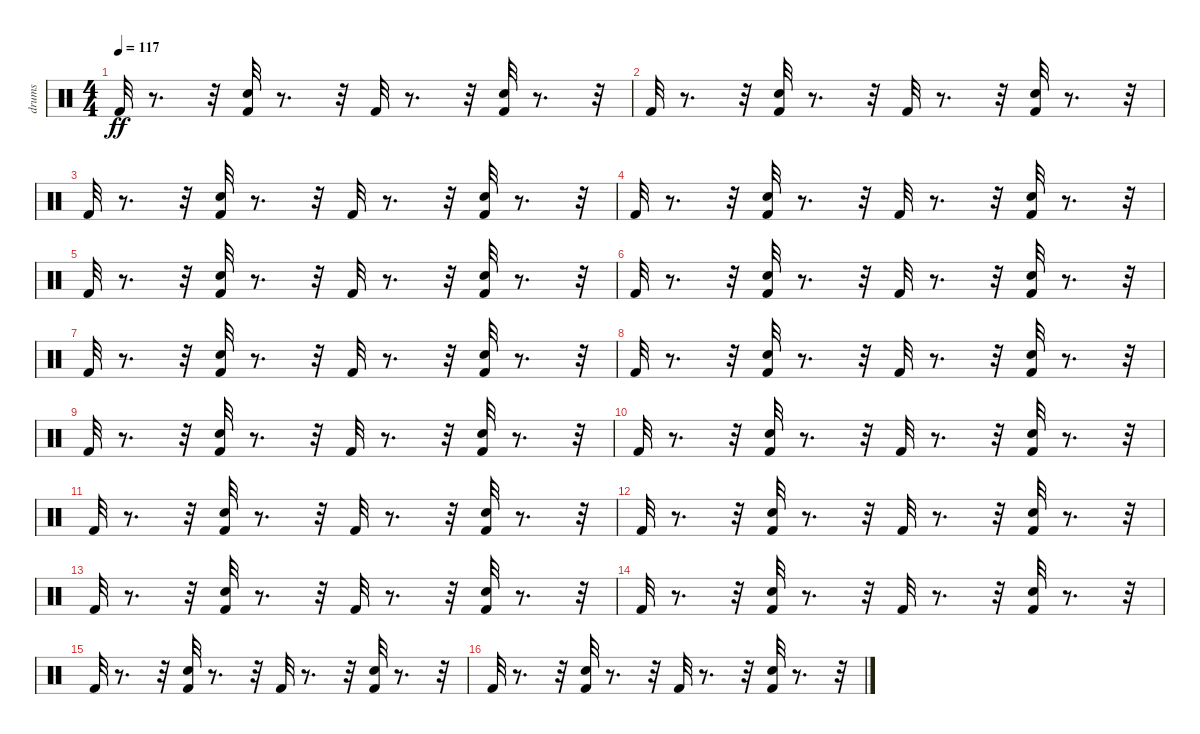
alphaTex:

\track ("drums   " "drums   ") {instrument percussion}
\staff {score}
\articulation defaults
\ts (4 4)
\tempo 117
\clef neutral
\ks c "Kick (hit) 2".32{dy ff}
r.8{d} r.32 ("Kick (hit) 2" "Snare (hit) 2").32 r.8{d} r.32 "Kick (hit) 2".32 r.8{d} r.32 ("Kick (hit) 2" "Snare (hit) 2").32 r.8{d} r.32 |
"Kick (hit) 2".32 r.8{d} r.32 ("Kick (hit) 2" "Snare (hit) 2").32 r.8{d} r.32 "Kick (hit) 2".32 r.8{d} r.32 ("Kick (hit) 2" "Snare (hit) 2").32 r.8{d} r.32 |
"Kick (hit) 2".32 r.8{d} r.32 ("Kick (hit) 2" "Snare (hit) 2").32 r.8{d} r.32 "Kick (hit) 2".32 r.8{d} r.32 ("Kick (hit) 2" "Snare (hit) 2").32 r.8{d} r.32 |
"Kick (hit) 2".32 r.8{d} r.32 ("Kick (hit) 2" "Snare (hit) 2").32 r.8{d} r.32 "Kick (hit) 2".32 r.8{d} r.32 ("Kick (hit) 2" "Snare (hit) 2").32 r.8{d} r.32 |
"Kick (hit) 2".32 r.8{d} r.32 ("Kick (hit) 2" "Snare (hit) 2").32 r.8{d} r.32 "Kick (hit) 2".32 r.8{d} r.32 ("Kick (hit) 2" "Snare (hit) 2").32 r.8{d} r.32 |
"Kick (hit) 2".32 r.8{d} r.32 ("Kick (hit) 2" "Snare (hit) 2").32 r.8{d} r.32 "Kick (hit) 2".32 r.8{d} r.32 ("Kick (hit) 2" "Snare (hit) 2").32 r.8{d} r.32 |
"Kick (hit) 2".32 r.8{d} r.32 ("Kick (hit) 2" "Snare (hit) 2").32 r.8{d} r.32 "Kick (hit) 2".32 r.8{d} r.32 ("Kick (hit) 2" "Snare (hit) 2").32 r.8{d} r.32 |
"Kick (hit) 2".32 r.8{d} r.32 ("Kick (hit) 2" "Snare (hit) 2").32 r.8{d} r.32 "Kick (hit) 2".32 r.8{d} r.32 ("Kick (hit) 2" "Snare (hit) 2").32 r.8{d} r.32 |
"Kick (hit) 2".32 r.8{d} r.32 ("Kick (hit) 2" "Snare (hit) 2").32 r.8{d} r.32 "Kick (hit) 2".32 r.8{d} r.32 ("Kick (hit) 2" "Snare (hit) 2").32 r.8{d} r.32 |
"Kick (hit) 2".32 r.8{d} r.32 ("Kick (hit) 2" "Snare (hit) 2").32 r.8{d} r.32 "Kick (hit) 2".32 r.8{d} r.32 ("Kick (hit) 2" "Snare (hit) 2").32 r.8{d} r.32 |
"Kick (hit) 2".32 r.8{d} r.32 ("Kick (hit) 2" "Snare (hit) 2").32 r.8{d} r.32 "Kick (hit) 2".32 r.8{d} r.32 ("Kick (hit) 2" "Snare (hit) 2").32 r.8{d} r.32 |
"Kick (hit) 2".32 r.8{d} r.32 ("Kick (hit) 2" "Snare (hit) 2").32 r.8{d} r.32 "Kick (hit) 2".32 r.8{d} r.32 ("Kick (hit) 2" "Snare (hit) 2").32 r.8{d} r.32 |
"Kick (hit) 2".32 r.8{d} r.32 ("Kick (hit) 2" "Snare (hit) 2").32 r.8{d} r.32 "Kick (hit) 2".32 r.8{d} r.32 ("Kick (hit) 2" "Snare (hit) 2").32 r.8{d} r.32 |
"Kick (hit) 2".32 r.8{d} r.32 ("Kick (hit) 2" "Snare (hit) 2").32 r.8{d} r.32 "Kick (hit) 2".32 r.8{d} r.32 ("Kick (hit) 2" "Snare (hit) 2").32 r.8{d} r.32 |
"Kick (hit) 2".32 r.8{d} r.32 ("Kick (hit) 2" "Snare (hit) 2").32 r.8{d} r.32 "Kick (hit) 2".32 r.8{d} r.32 ("Kick (hit) 2" "Snare (hit) 2").32 r.8{d} r.32 |
"Kick (hit) 2".32 r.8{d} r.32 ("Kick (hit) 2" "Snare (hit) 2").32 r.8{d} r.32 "Kick (hit) 2".32 r.8{d} r.32 ("Kick (hit) 2" "Snare (hit) 2").32 r.8{d} r.32
